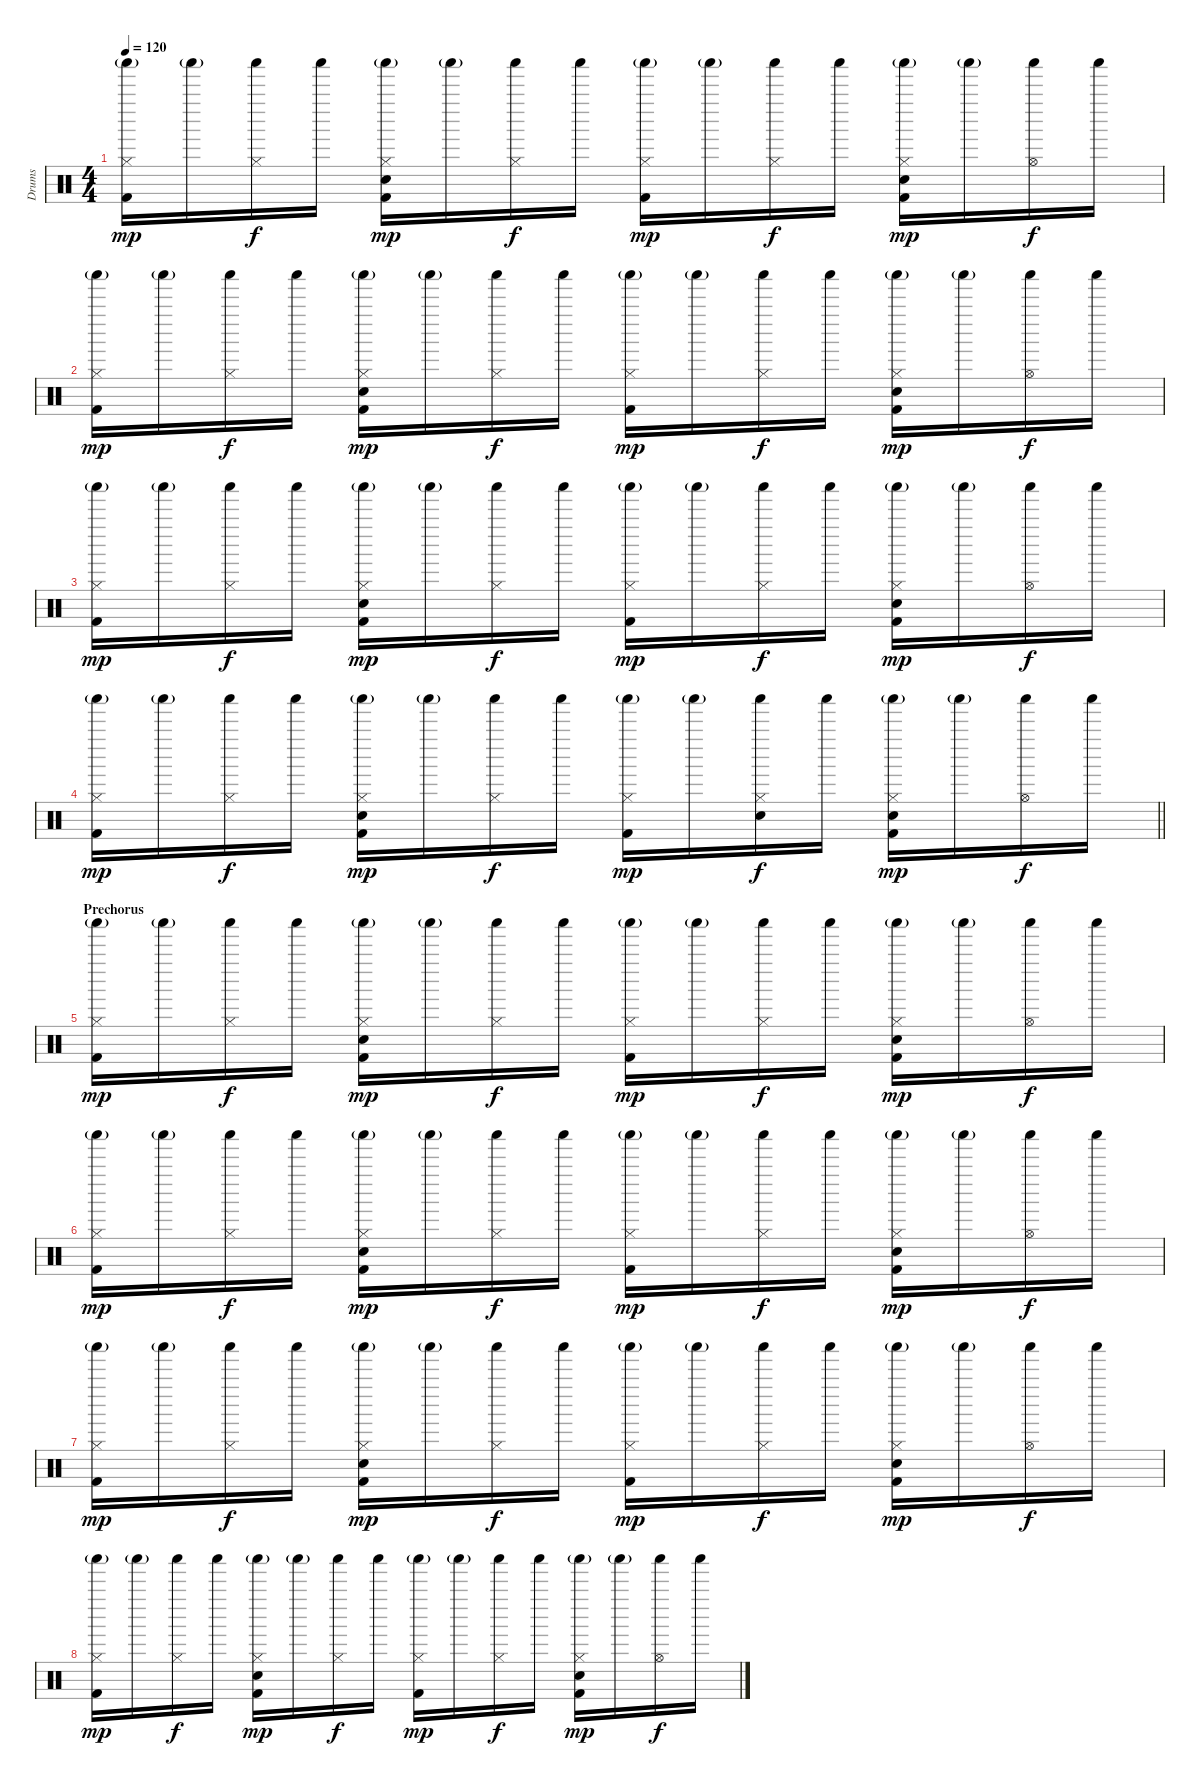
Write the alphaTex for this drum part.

\track ("Drums" "Drums") {instrument percussion}
\staff {score}
\articulation defaults
\ts (4 4)
\tempo 120
\clef neutral
\ks c
("Hi-Hat (closed)" "Shaker (hit)"{g} "Kick (hit) 2").16{dy mp} "Shaker (hit)"{g}.16 ("Hi-Hat (closed)" "Shaker (hit)").16{dy f} "Shaker (hit)".16 ("Hi-Hat (closed)" "Shaker (hit)"{g} "Electric Snare (hit)" "Kick (hit) 2").16{dy mp} "Shaker (hit)"{g}.16 ("Hi-Hat (closed)" "Shaker (hit)").16{dy f} "Shaker (hit)".16 ("Hi-Hat (closed)" "Shaker (hit)"{g} "Kick (hit) 2").16{dy mp} "Shaker (hit)"{g}.16 ("Hi-Hat (closed)" "Shaker (hit)").16{dy f} "Shaker (hit)".16 ("Hi-Hat (closed)" "Shaker (hit)"{g} "Electric Snare (hit)" "Kick (hit) 2").16{dy mp} "Shaker (hit)"{g}.16 ("Hi-Hat (open)" "Shaker (hit)").16{dy f} "Shaker (hit)".16 |
("Hi-Hat (closed)" "Shaker (hit)"{g} "Kick (hit) 2").16{dy mp} "Shaker (hit)"{g}.16 ("Hi-Hat (closed)" "Shaker (hit)").16{dy f} "Shaker (hit)".16 ("Hi-Hat (closed)" "Shaker (hit)"{g} "Electric Snare (hit)" "Kick (hit) 2").16{dy mp} "Shaker (hit)"{g}.16 ("Hi-Hat (closed)" "Shaker (hit)").16{dy f} "Shaker (hit)".16 ("Hi-Hat (closed)" "Shaker (hit)"{g} "Kick (hit) 2").16{dy mp} "Shaker (hit)"{g}.16 ("Hi-Hat (closed)" "Shaker (hit)").16{dy f} "Shaker (hit)".16 ("Hi-Hat (closed)" "Shaker (hit)"{g} "Electric Snare (hit)" "Kick (hit) 2").16{dy mp} "Shaker (hit)"{g}.16 ("Hi-Hat (open)" "Shaker (hit)").16{dy f} "Shaker (hit)".16 |
("Hi-Hat (closed)" "Shaker (hit)"{g} "Kick (hit) 2").16{dy mp} "Shaker (hit)"{g}.16 ("Hi-Hat (closed)" "Shaker (hit)").16{dy f} "Shaker (hit)".16 ("Hi-Hat (closed)" "Shaker (hit)"{g} "Electric Snare (hit)" "Kick (hit) 2").16{dy mp} "Shaker (hit)"{g}.16 ("Hi-Hat (closed)" "Shaker (hit)").16{dy f} "Shaker (hit)".16 ("Hi-Hat (closed)" "Shaker (hit)"{g} "Kick (hit) 2").16{dy mp} "Shaker (hit)"{g}.16 ("Hi-Hat (closed)" "Shaker (hit)").16{dy f} "Shaker (hit)".16 ("Hi-Hat (closed)" "Shaker (hit)"{g} "Electric Snare (hit)" "Kick (hit) 2").16{dy mp} "Shaker (hit)"{g}.16 ("Hi-Hat (open)" "Shaker (hit)").16{dy f} "Shaker (hit)".16 |
\barLineRight lightlight
("Hi-Hat (closed)" "Shaker (hit)"{g} "Kick (hit) 2").16{dy mp} "Shaker (hit)"{g}.16 ("Hi-Hat (closed)" "Shaker (hit)").16{dy f} "Shaker (hit)".16 ("Hi-Hat (closed)" "Shaker (hit)"{g} "Electric Snare (hit)" "Kick (hit) 2").16{dy mp} "Shaker (hit)"{g}.16 ("Hi-Hat (closed)" "Shaker (hit)").16{dy f} "Shaker (hit)".16 ("Hi-Hat (closed)" "Shaker (hit)"{g} "Kick (hit) 2").16{dy mp} "Shaker (hit)"{g}.16 ("Hi-Hat (closed)" "Shaker (hit)" "Electric Snare (hit)").16{dy f} "Shaker (hit)".16 ("Hi-Hat (closed)" "Shaker (hit)"{g} "Electric Snare (hit)" "Kick (hit) 2").16{dy mp} "Shaker (hit)"{g}.16 ("Hi-Hat (open)" "Shaker (hit)").16{dy f} "Shaker (hit)".16 |
\section ("" "Prechorus")
("Hi-Hat (closed)" "Shaker (hit)"{g} "Kick (hit) 2").16{dy mp} "Shaker (hit)"{g}.16 ("Hi-Hat (closed)" "Shaker (hit)").16{dy f} "Shaker (hit)".16 ("Hi-Hat (closed)" "Shaker (hit)"{g} "Electric Snare (hit)" "Kick (hit) 2").16{dy mp} "Shaker (hit)"{g}.16 ("Hi-Hat (closed)" "Shaker (hit)").16{dy f} "Shaker (hit)".16 ("Hi-Hat (closed)" "Shaker (hit)"{g} "Kick (hit) 2").16{dy mp} "Shaker (hit)"{g}.16 ("Hi-Hat (closed)" "Shaker (hit)").16{dy f} "Shaker (hit)".16 ("Hi-Hat (closed)" "Shaker (hit)"{g} "Electric Snare (hit)" "Kick (hit) 2").16{dy mp} "Shaker (hit)"{g}.16 ("Hi-Hat (open)" "Shaker (hit)").16{dy f} "Shaker (hit)".16 |
("Hi-Hat (closed)" "Shaker (hit)"{g} "Kick (hit) 2").16{dy mp} "Shaker (hit)"{g}.16 ("Hi-Hat (closed)" "Shaker (hit)").16{dy f} "Shaker (hit)".16 ("Hi-Hat (closed)" "Shaker (hit)"{g} "Electric Snare (hit)" "Kick (hit) 2").16{dy mp} "Shaker (hit)"{g}.16 ("Hi-Hat (closed)" "Shaker (hit)").16{dy f} "Shaker (hit)".16 ("Hi-Hat (closed)" "Shaker (hit)"{g} "Kick (hit) 2").16{dy mp} "Shaker (hit)"{g}.16 ("Hi-Hat (closed)" "Shaker (hit)").16{dy f} "Shaker (hit)".16 ("Hi-Hat (closed)" "Shaker (hit)"{g} "Electric Snare (hit)" "Kick (hit) 2").16{dy mp} "Shaker (hit)"{g}.16 ("Hi-Hat (open)" "Shaker (hit)").16{dy f} "Shaker (hit)".16 |
("Hi-Hat (closed)" "Shaker (hit)"{g} "Kick (hit) 2").16{dy mp} "Shaker (hit)"{g}.16 ("Hi-Hat (closed)" "Shaker (hit)").16{dy f} "Shaker (hit)".16 ("Hi-Hat (closed)" "Shaker (hit)"{g} "Electric Snare (hit)" "Kick (hit) 2").16{dy mp} "Shaker (hit)"{g}.16 ("Hi-Hat (closed)" "Shaker (hit)").16{dy f} "Shaker (hit)".16 ("Hi-Hat (closed)" "Shaker (hit)"{g} "Kick (hit) 2").16{dy mp} "Shaker (hit)"{g}.16 ("Hi-Hat (closed)" "Shaker (hit)").16{dy f} "Shaker (hit)".16 ("Hi-Hat (closed)" "Shaker (hit)"{g} "Electric Snare (hit)" "Kick (hit) 2").16{dy mp} "Shaker (hit)"{g}.16 ("Hi-Hat (open)" "Shaker (hit)").16{dy f} "Shaker (hit)".16 |
("Hi-Hat (closed)" "Shaker (hit)"{g} "Kick (hit) 2").16{dy mp} "Shaker (hit)"{g}.16 ("Hi-Hat (closed)" "Shaker (hit)").16{dy f} "Shaker (hit)".16 ("Hi-Hat (closed)" "Shaker (hit)"{g} "Electric Snare (hit)" "Kick (hit) 2").16{dy mp} "Shaker (hit)"{g}.16 ("Hi-Hat (closed)" "Shaker (hit)").16{dy f} "Shaker (hit)".16 ("Hi-Hat (closed)" "Shaker (hit)"{g} "Kick (hit) 2").16{dy mp} "Shaker (hit)"{g}.16 ("Hi-Hat (closed)" "Shaker (hit)").16{dy f} "Shaker (hit)".16 ("Hi-Hat (closed)" "Shaker (hit)"{g} "Electric Snare (hit)" "Kick (hit) 2").16{dy mp} "Shaker (hit)"{g}.16 ("Hi-Hat (open)" "Shaker (hit)").16{dy f} "Shaker (hit)".16
